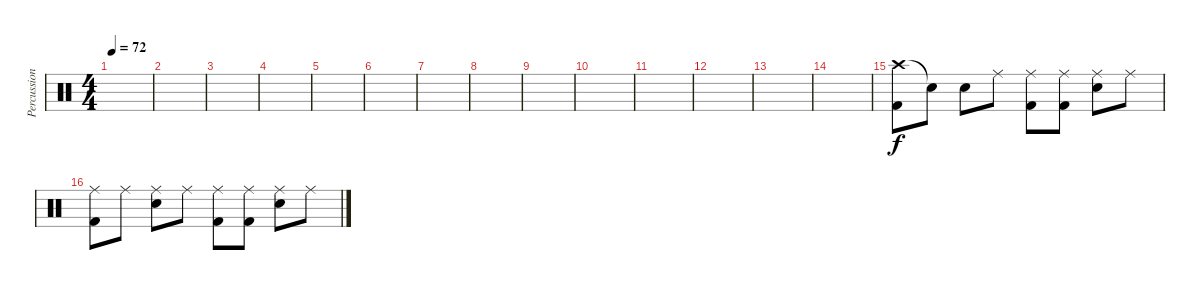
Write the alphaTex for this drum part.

\track ("Percussioni" "Percussion") {instrument percussion}
\staff {score}
\articulation defaults
\ts (4 4)
\tempo 72
\clef neutral
\ks c
|
|
|
|
|
|
|
|
|
|
|
|
|
|
("Crash high (hit)" "Kick (hit) 2").8 "Snare (hit)"{t}.8 "Electric Snare (hit)".8 "Ride (middle)".8 ("Ride (middle)" "Kick (hit) 2").8 ("Ride (middle)" "Kick (hit) 2").8 ("Electric Snare (hit)" "Ride (middle)").8 "Ride (middle)".8 |
("Ride (middle)" "Kick (hit) 2").8 "Ride (middle)".8 ("Electric Snare (hit)" "Ride (middle)").8 "Ride (middle)".8 ("Ride (middle)" "Kick (hit) 2").8 ("Ride (middle)" "Kick (hit) 2").8 ("Electric Snare (hit)" "Ride (middle)").8 "Ride (middle)".8
